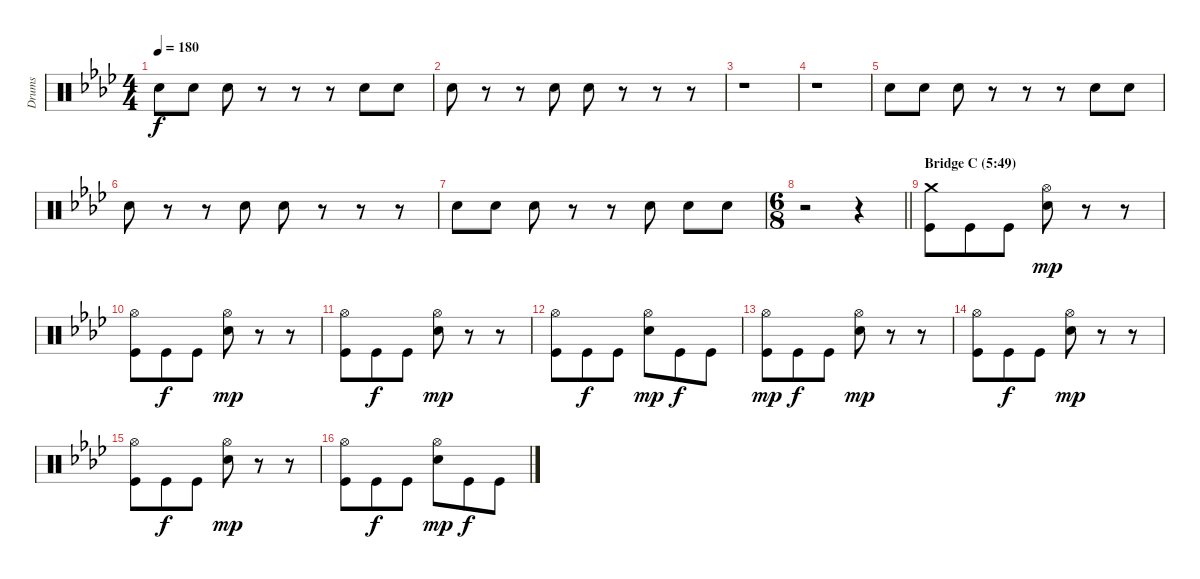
\track ("Drums" "Drums") {instrument percussion}
\staff {score}
\articulation defaults
\ts (4 4)
\tempo 180
\clef neutral
\ks fminor "Snare (hit) 2".8{dy f} "Snare (hit) 2".8 "Snare (hit) 2".8
r.8 r.8 r.8 "Snare (hit) 2".8 "Snare (hit) 2".8 |
"Snare (hit) 2".8 r.8 r.8 "Snare (hit) 2".8 "Snare (hit) 2".8 r.8 r.8 r.8 |
r.1 |
r.1 |
"Snare (hit) 2".8 "Snare (hit) 2".8 "Snare (hit) 2".8 r.8 r.8 r.8 "Snare (hit) 2".8 "Snare (hit) 2".8 |
"Snare (hit) 2".8 r.8 r.8 "Snare (hit) 2".8 "Snare (hit) 2".8 r.8 r.8 r.8 |
"Snare (hit) 2".8 "Snare (hit) 2".8 "Snare (hit) 2".8 r.8 r.8 "Snare (hit) 2".8 "Snare (hit) 2".8 "Snare (hit) 2".8 |
\ts (6 8)
\barLineRight lightlight
r.2 r.4 |
\section ("" "Bridge C (5:49)")
("Crash medium (hit)" "Kick (hit)").8{volume 16 balance 8} "Kick (hit)".8 "Kick (hit)".8 ("Hi-Hat (open)" "Snare (hit) 2").8{dy mp} r.8 r.8 |
("Hi-Hat (open)" "Kick (hit)").8 "Kick (hit)".8{dy f} "Kick (hit)".8 ("Hi-Hat (open)" "Snare (hit) 2").8{dy mp} r.8 r.8 |
("Hi-Hat (open)" "Kick (hit)").8 "Kick (hit)".8{dy f} "Kick (hit)".8 ("Hi-Hat (open)" "Snare (hit) 2").8{dy mp} r.8 r.8 |
("Hi-Hat (open)" "Kick (hit)").8 "Kick (hit)".8{dy f} "Kick (hit)".8 ("Hi-Hat (open)" "Snare (hit) 2").8{dy mp} "Kick (hit)".8{dy f} "Kick (hit)".8 |
("Hi-Hat (open)" "Kick (hit)").8{dy mp} "Kick (hit)".8{dy f} "Kick (hit)".8 ("Hi-Hat (open)" "Snare (hit) 2").8{dy mp} r.8 r.8 |
("Hi-Hat (open)" "Kick (hit)").8 "Kick (hit)".8{dy f} "Kick (hit)".8 ("Hi-Hat (open)" "Snare (hit) 2").8{dy mp} r.8 r.8 |
("Hi-Hat (open)" "Kick (hit)").8 "Kick (hit)".8{dy f} "Kick (hit)".8 ("Hi-Hat (open)" "Snare (hit) 2").8{dy mp} r.8 r.8 |
("Hi-Hat (open)" "Kick (hit)").8 "Kick (hit)".8{dy f} "Kick (hit)".8 ("Hi-Hat (open)" "Snare (hit) 2").8{dy mp} "Kick (hit)".8{dy f} "Kick (hit)".8
